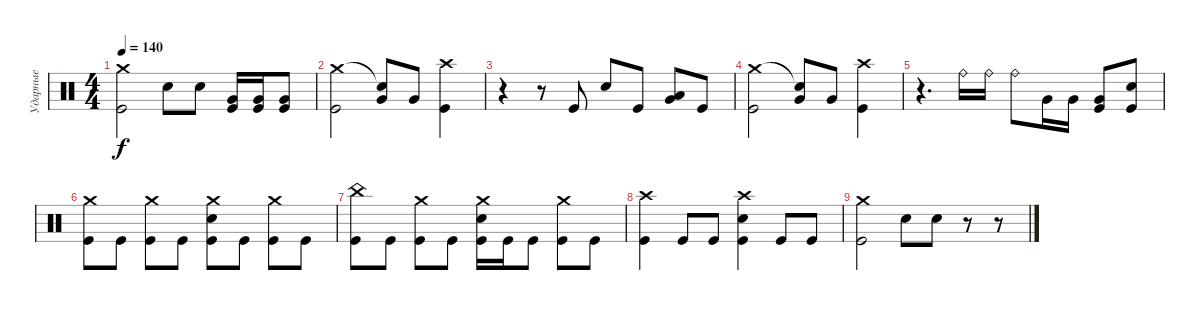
\track ("Ударные" "Ударные") {instrument percussion}
\staff {score}
\articulation defaults
\ts (4 4)
\tempo 140
\clef neutral
\ks c
("Crash medium (hit)" "Kick (hit)").2{dy f} "Electric Snare (hit)".8 "Electric Snare (hit)".8 ("Very Low Tom (hit)" "Kick (hit)").16 ("Very Low Tom (hit)" "Kick (hit)").16 ("Very Low Tom (hit)" "Kick (hit)").8 |
("Crash medium (hit)" "Kick (hit)").2 ("Snare (hit)"{t} "Very Low Tom (hit)").8 "Very Low Tom (hit)".8 ("Crash high (hit)" "Kick (hit)").4 |
r.4 r.8 "Kick (hit)".8 "Electric Snare (hit)".8 "Kick (hit)".8 ("Low Tom (hit)" "Very Low Tom (hit)").8 "Kick (hit)".8 |
("Crash medium (hit)" "Kick (hit)").2 ("Snare (hit)"{t} "Very Low Tom (hit)").8 "Very Low Tom (hit)".8 ("Crash high (hit)" "Kick (hit)").4 |
r.4{d} "Ride (bell)".16 "Ride (bell)".16 "Ride (bell)".8 "Very Low Tom (hit)".16 "Very Low Tom (hit)".16 ("Very Low Tom (hit)" "Kick (hit)").8 ("Electric Snare (hit)" "Kick (hit)").8 |
("Crash medium (hit)" "Kick (hit)").8 "Kick (hit)".8 ("Crash medium (hit)" "Kick (hit)").8 "Kick (hit)".8 ("Crash medium (hit)" "Electric Snare (hit)" "Kick (hit)").8 "Kick (hit)".8 ("Crash medium (hit)" "Kick (hit)").8 "Kick (hit)".8 |
("China (hit)" "Kick (hit)").8 "Kick (hit)".8 ("Crash medium (hit)" "Kick (hit)").8 "Kick (hit)".8 ("Crash medium (hit)" "Electric Snare (hit)" "Kick (hit)").16 "Kick (hit)".16 "Kick (hit)".8 ("Crash medium (hit)" "Kick (hit)").8 "Kick (hit)".8 |
("Crash high (hit)" "Kick (hit)").4 "Kick (hit)".8 "Kick (hit)".8 ("Crash high (hit)" "Electric Snare (hit)" "Kick (hit)").4 "Kick (hit)".8 "Kick (hit)".8 |
("Crash medium (hit)" "Kick (hit)").2 "Electric Snare (hit)".8 "Electric Snare (hit)".8 r.8 r.8
